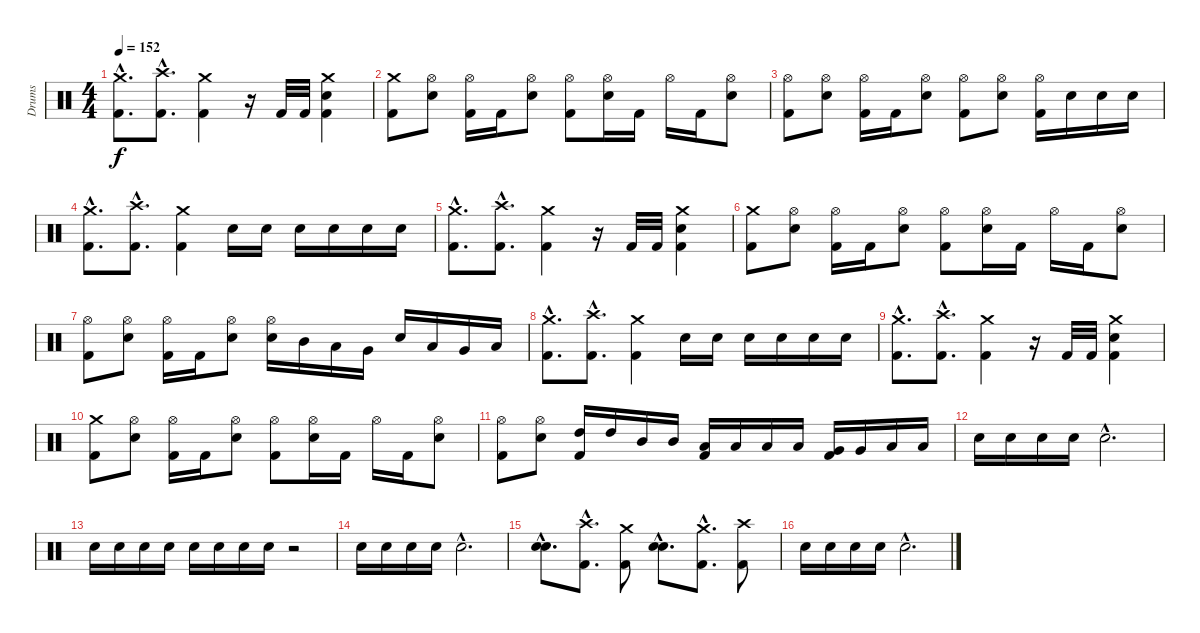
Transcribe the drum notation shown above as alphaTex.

\track ("Drums" "Drums") {instrument percussion}
\staff {score}
\articulation defaults
\ts (4 4)
\tempo 152
\clef neutral
\ks c
("Crash medium (hit)"{hac} "Kick (hit) 2"{hac}).8{d dy f} ("Crash high (hit)"{hac} "Kick (hit) 2"{hac}).8{d} ("Crash medium (hit)" "Kick (hit) 2").4 r.16 "Kick (hit) 2".32 "Kick (hit) 2".32 ("Crash medium (hit)" "Snare (hit) 2" "Kick (hit) 2").4 |
("Crash medium (hit)" "Kick (hit) 2").8 ("Hi-Hat (open)" "Snare (hit) 2").8 ("Hi-Hat (open)" "Kick (hit) 2").16 "Kick (hit) 2".16 ("Hi-Hat (open)" "Snare (hit) 2").8 ("Hi-Hat (open)" "Kick (hit) 2").8 ("Hi-Hat (open)" "Snare (hit) 2").16 "Kick (hit) 2".16 "Hi-Hat (open)".16 "Kick (hit) 2".16 ("Hi-Hat (open)" "Snare (hit) 2").8 |
("Hi-Hat (open)" "Kick (hit) 2").8 ("Hi-Hat (open)" "Snare (hit) 2").8 ("Hi-Hat (open)" "Kick (hit) 2").16 "Kick (hit) 2".16 ("Hi-Hat (open)" "Snare (hit) 2").8 ("Hi-Hat (open)" "Kick (hit) 2").8 ("Hi-Hat (open)" "Snare (hit) 2").8 ("Hi-Hat (open)" "Kick (hit) 2").16 "Snare (hit) 2".16 "Snare (hit) 2".16 "Snare (hit) 2".16 |
("Crash medium (hit)"{hac} "Kick (hit) 2"{hac}).8{d} ("Crash high (hit)"{hac} "Kick (hit) 2"{hac}).8{d} ("Crash medium (hit)" "Kick (hit) 2").4 "Snare (hit) 2".16 "Snare (hit) 2".16 "Snare (hit) 2".16 "Snare (hit) 2".16 "Snare (hit) 2".16 "Snare (hit) 2".16 |
("Crash medium (hit)"{hac} "Kick (hit) 2"{hac}).8{d} ("Crash high (hit)"{hac} "Kick (hit) 2"{hac}).8{d} ("Crash medium (hit)" "Kick (hit) 2").4 r.16 "Kick (hit) 2".32 "Kick (hit) 2".32 ("Crash medium (hit)" "Snare (hit) 2" "Kick (hit) 2").4 |
("Crash medium (hit)" "Kick (hit) 2").8 ("Hi-Hat (open)" "Snare (hit) 2").8 ("Hi-Hat (open)" "Kick (hit) 2").16 "Kick (hit) 2".16 ("Hi-Hat (open)" "Snare (hit) 2").8 ("Hi-Hat (open)" "Kick (hit) 2").8 ("Hi-Hat (open)" "Snare (hit) 2").16 "Kick (hit) 2".16 "Hi-Hat (open)".16 "Kick (hit) 2".16 ("Hi-Hat (open)" "Snare (hit) 2").8 |
("Hi-Hat (open)" "Kick (hit) 2").8 ("Hi-Hat (open)" "Snare (hit) 2").8 ("Hi-Hat (open)" "Kick (hit) 2").16 "Kick (hit) 2".16 ("Hi-Hat (open)" "Snare (hit) 2").8 ("Hi-Hat (open)" "Snare (hit) 2").16 "Mid Tom (hit)".16 "Low Tom (hit)".16 "Very Low Tom (hit)".16 "Snare (hit) 2".16 "Low Tom (hit)".16 "Very Low Tom (hit)".16 "Low Floor Tom (hit)".16 |
("Crash medium (hit)"{hac} "Kick (hit) 2"{hac}).8{d} ("Crash high (hit)"{hac} "Kick (hit) 2"{hac}).8{d} ("Crash medium (hit)" "Kick (hit) 2").4 "Snare (hit) 2".16 "Snare (hit) 2".16 "Snare (hit) 2".16 "Snare (hit) 2".16 "Snare (hit) 2".16 "Snare (hit) 2".16 |
("Crash medium (hit)"{hac} "Kick (hit) 2"{hac}).8{d} ("Crash high (hit)"{hac} "Kick (hit) 2"{hac}).8{d} ("Crash medium (hit)" "Kick (hit) 2").4 r.16 "Kick (hit) 2".32 "Kick (hit) 2".32 ("Crash medium (hit)" "Snare (hit) 2" "Kick (hit) 2").4 |
("Crash medium (hit)" "Kick (hit) 2").8 ("Hi-Hat (open)" "Snare (hit) 2").8 ("Hi-Hat (open)" "Kick (hit) 2").16 "Kick (hit) 2".16 ("Hi-Hat (open)" "Snare (hit) 2").8 ("Hi-Hat (open)" "Kick (hit) 2").8 ("Hi-Hat (open)" "Snare (hit) 2").16 "Kick (hit) 2".16 "Hi-Hat (open)".16 "Kick (hit) 2".16 ("Hi-Hat (open)" "Snare (hit) 2").8 |
("Hi-Hat (open)" "Kick (hit) 2").8 ("Hi-Hat (open)" "Snare (hit) 2").8 ("High Tom (hit)" "Kick (hit) 2").16 "High Tom (hit)".16 "Mid Tom (hit)".16 "Mid Tom (hit)".16 ("Low Tom (hit)" "Kick (hit) 2").16 "Low Tom (hit)".16 "Low Tom (hit)".16 "Low Tom (hit)".16 ("Very Low Tom (hit)" "Kick (hit) 2").16 "Very Low Tom (hit)".16 "Low Floor Tom (hit)".16 "Low Floor Tom (hit)".16 |
"Snare (hit) 2".16 "Snare (hit) 2".16 "Snare (hit) 2".16 "Snare (hit) 2".16 "Snare (hit) 2"{hac}.2{d} |
"Snare (hit) 2".16 "Snare (hit) 2".16 "Snare (hit) 2".16 "Snare (hit) 2".16 "Snare (hit) 2".16 "Snare (hit) 2".16 "Snare (hit) 2".16 "Snare (hit) 2".16 r.2 |
"Snare (hit) 2".16 "Snare (hit) 2".16 "Snare (hit) 2".16 "Snare (hit) 2".16 "Snare (hit) 2"{hac}.2{d} |
("Snare (hit) 2"{hac} "Snare (hit) 2"{hac}).8{d bu 240} ("Crash high (hit)"{hac} "Kick (hit) 2"{hac}).8{d} ("Crash medium (hit)" "Kick (hit) 2").8 ("Snare (hit) 2"{hac} "Snare (hit) 2"{hac}).8{d bu 240} ("Crash medium (hit)"{hac} "Kick (hit) 2"{hac}).8{d} ("Crash high (hit)" "Kick (hit) 2").8 |
"Snare (hit) 2".16 "Snare (hit) 2".16 "Snare (hit) 2".16 "Snare (hit) 2".16 "Snare (hit) 2"{hac}.2{d}
